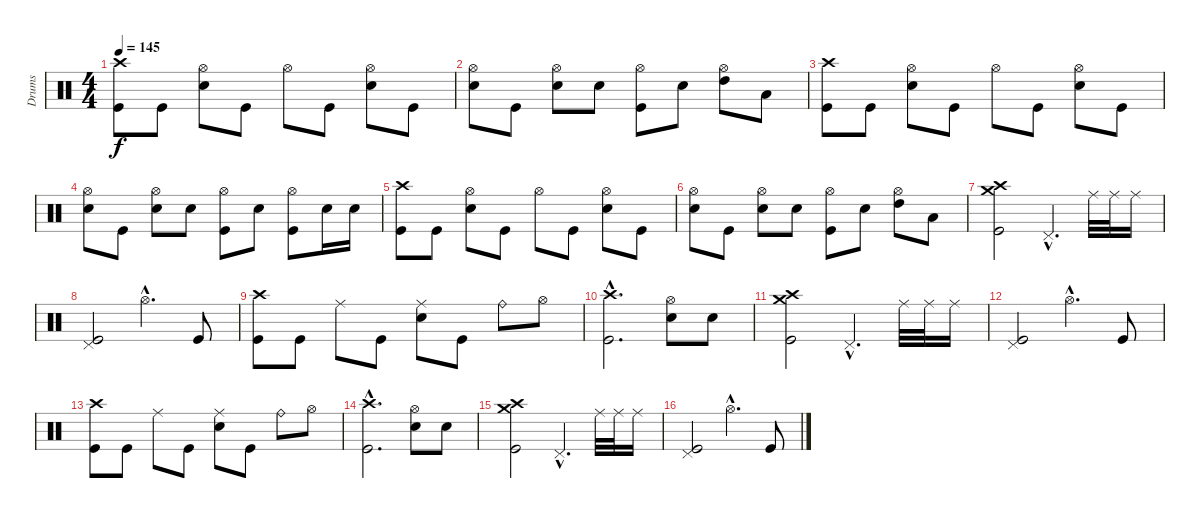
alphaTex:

\track ("Drums" "Drums") {instrument percussion}
\staff {score}
\articulation defaults
\ts (4 4)
\tempo 145
\clef neutral
\ks c
("Crash high (hit)" "Kick (hit)").8{dy f} "Kick (hit)".8 ("Hi-Hat (open)" "Electric Snare (hit)").8 "Kick (hit)".8 "Hi-Hat (open)".8 "Kick (hit)".8 ("Hi-Hat (open)" "Electric Snare (hit)").8 "Kick (hit)".8 |
("Hi-Hat (open)" "Electric Snare (hit)").8 "Kick (hit)".8 ("Hi-Hat (open)" "Electric Snare (hit)").8 "Electric Snare (hit)".8 ("Hi-Hat (open)" "Kick (hit)").8 "Electric Snare (hit)".8 ("Hi-Hat (open)" "High Tom (hit)").8 "Low Tom (hit)".8 |
("Crash high (hit)" "Kick (hit)").8 "Kick (hit)".8 ("Hi-Hat (open)" "Electric Snare (hit)").8 "Kick (hit)".8 "Hi-Hat (open)".8 "Kick (hit)".8 ("Hi-Hat (open)" "Electric Snare (hit)").8 "Kick (hit)".8 |
("Hi-Hat (open)" "Electric Snare (hit)").8 "Kick (hit)".8 ("Hi-Hat (open)" "Electric Snare (hit)").8 "Electric Snare (hit)".8 ("Hi-Hat (open)" "Kick (hit)").8 "Electric Snare (hit)".8 ("Hi-Hat (open)" "Kick (hit)").8 "Electric Snare (hit)".16 "Electric Snare (hit)".16 |
("Crash high (hit)" "Kick (hit)").8 "Kick (hit)".8 ("Hi-Hat (open)" "Electric Snare (hit)").8 "Kick (hit)".8 "Hi-Hat (open)".8 "Kick (hit)".8 ("Hi-Hat (open)" "Electric Snare (hit)").8 "Kick (hit)".8 |
("Hi-Hat (open)" "Electric Snare (hit)").8 "Kick (hit)".8 ("Hi-Hat (open)" "Electric Snare (hit)").8 "Electric Snare (hit)".8 ("Hi-Hat (open)" "Kick (hit)").8 "Electric Snare (hit)".8 ("Hi-Hat (open)" "High Tom (hit)").8 "Low Tom (hit)".8 |
("Crash high (hit)" "Crash medium (hit)" "Kick (hit)").2 "Pedal Hi-Hat (hit)"{hac}.4{d} "Ride (middle)".32 "Ride (middle)".32 "Ride (middle)".16 |
("Pedal Hi-Hat (hit)" "Kick (hit)").2 "Hi-Hat (open)"{hac}.4{d} "Kick (hit)".8 |
("Crash high (hit)" "Kick (hit)").8 "Kick (hit)".8 "Ride (middle)".8 "Kick (hit)".8 ("Ride (middle)" "Electric Snare (hit)").8 "Kick (hit)".8 "Ride (bell)".8 "Hi-Hat (open)".8 |
("Crash high (hit)"{hac} "Kick (hit)"{hac}).2{d} ("Hi-Hat (open)" "Electric Snare (hit)").8 "Electric Snare (hit)".8 |
("Crash high (hit)" "Crash medium (hit)" "Kick (hit)").2 "Pedal Hi-Hat (hit)"{hac}.4{d} "Ride (middle)".32 "Ride (middle)".32 "Ride (middle)".16 |
("Pedal Hi-Hat (hit)" "Kick (hit)").2 "Hi-Hat (open)"{hac}.4{d} "Kick (hit)".8 |
("Crash high (hit)" "Kick (hit)").8 "Kick (hit)".8 "Ride (middle)".8 "Kick (hit)".8 ("Ride (middle)" "Electric Snare (hit)").8 "Kick (hit)".8 "Ride (bell)".8 "Hi-Hat (open)".8 |
("Crash high (hit)"{hac} "Kick (hit)"{hac}).2{d} ("Hi-Hat (open)" "Electric Snare (hit)").8 "Electric Snare (hit)".8 |
("Crash high (hit)" "Crash medium (hit)" "Kick (hit)").2 "Pedal Hi-Hat (hit)"{hac}.4{d} "Ride (middle)".32 "Ride (middle)".32 "Ride (middle)".16 |
("Pedal Hi-Hat (hit)" "Kick (hit)").2 "Hi-Hat (open)"{hac}.4{d} "Kick (hit)".8
